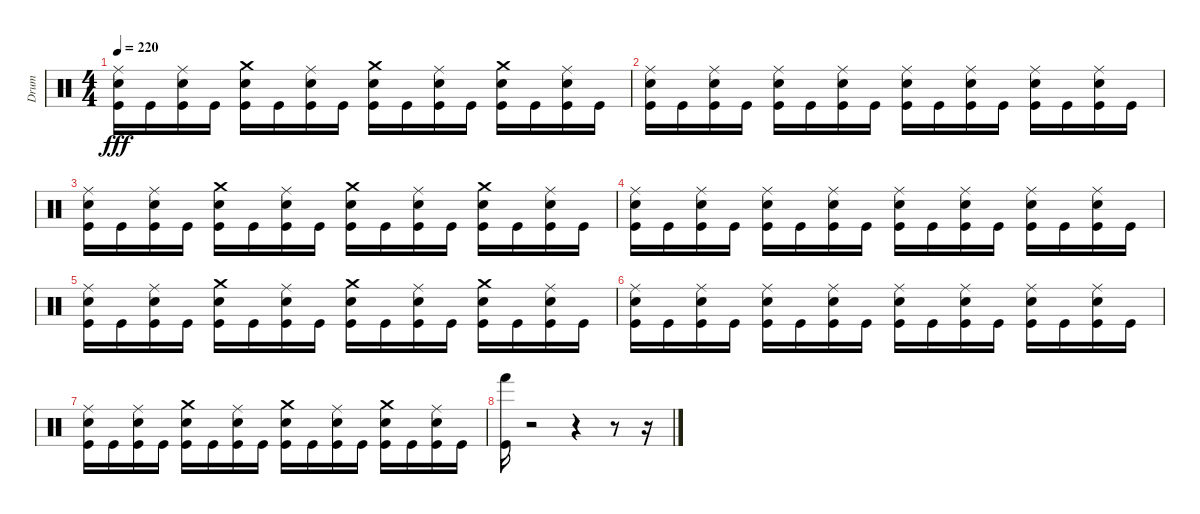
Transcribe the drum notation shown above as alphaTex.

\track ("Drum" "Drum") {instrument percussion}
\staff {score}
\articulation defaults
\ts (4 4)
\tempo 220
\clef neutral
\ks c
("Snare (hit) 2" "Kick (hit)" "Ride (middle)").16{dy fff} "Kick (hit)".16 ("Snare (hit) 2" "Ride (middle)" "Kick (hit)").16 "Kick (hit)".16 ("Snare (hit) 2" "Kick (hit)" "Crash medium (hit)").16 "Kick (hit)".16 ("Ride (middle)" "Kick (hit)" "Snare (hit) 2").16 "Kick (hit)".16 ("Kick (hit)" "Snare (hit) 2" "Crash medium (hit)").16 "Kick (hit)".16 ("Ride (middle)" "Snare (hit) 2" "Kick (hit)").16 "Kick (hit)".16 ("Snare (hit) 2" "Kick (hit)" "Crash medium (hit)").16 "Kick (hit)".16 ("Ride (middle)" "Kick (hit)" "Snare (hit) 2").16 "Kick (hit)".16 |
("Ride (middle)" "Snare (hit) 2" "Kick (hit)").16 "Kick (hit)".16 ("Snare (hit) 2" "Ride (middle)" "Kick (hit)").16 "Kick (hit)".16 ("Snare (hit) 2" "Ride (middle)" "Kick (hit)").16 "Kick (hit)".16 ("Kick (hit)" "Snare (hit) 2" "Ride (middle)").16 "Kick (hit)".16 ("Ride (middle)" "Kick (hit)" "Snare (hit) 2").16 "Kick (hit)".16 ("Snare (hit) 2" "Kick (hit)" "Ride (middle)").16 "Kick (hit)".16 ("Snare (hit) 2" "Kick (hit)" "Ride (middle)").16 "Kick (hit)".16 ("Snare (hit) 2" "Ride (middle)" "Kick (hit)").16 "Kick (hit)".16 |
("Kick (hit)" "Snare (hit) 2" "Ride (middle)").16 "Kick (hit)".16 ("Ride (middle)" "Kick (hit)" "Snare (hit) 2").16 "Kick (hit)".16 ("Snare (hit) 2" "Crash medium (hit)" "Kick (hit)").16 "Kick (hit)".16 ("Kick (hit)" "Snare (hit) 2" "Ride (middle)").16 "Kick (hit)".16 ("Snare (hit) 2" "Kick (hit)" "Crash medium (hit)").16 "Kick (hit)".16 ("Kick (hit)" "Snare (hit) 2" "Ride (middle)").16 "Kick (hit)".16 ("Kick (hit)" "Crash medium (hit)" "Snare (hit) 2").16 "Kick (hit)".16 ("Kick (hit)" "Ride (middle)" "Snare (hit) 2").16 "Kick (hit)".16 |
("Ride (middle)" "Snare (hit) 2" "Kick (hit)").16 "Kick (hit)".16 ("Kick (hit)" "Snare (hit) 2" "Ride (middle)").16 "Kick (hit)".16 ("Ride (middle)" "Snare (hit) 2" "Kick (hit)").16 "Kick (hit)".16 ("Snare (hit) 2" "Kick (hit)" "Ride (middle)").16 "Kick (hit)".16 ("Ride (middle)" "Snare (hit) 2" "Kick (hit)").16 "Kick (hit)".16 ("Snare (hit) 2" "Ride (middle)" "Kick (hit)").16 "Kick (hit)".16 ("Snare (hit) 2" "Kick (hit)" "Ride (middle)").16 "Kick (hit)".16 ("Kick (hit)" "Snare (hit) 2" "Ride (middle)").16 "Kick (hit)".16 |
("Kick (hit)" "Snare (hit) 2" "Ride (middle)").16 "Kick (hit)".16 ("Ride (middle)" "Snare (hit) 2" "Kick (hit)").16 "Kick (hit)".16 ("Snare (hit) 2" "Kick (hit)" "Crash medium (hit)").16 "Kick (hit)".16 ("Kick (hit)" "Ride (middle)" "Snare (hit) 2").16 "Kick (hit)".16 ("Crash medium (hit)" "Kick (hit)" "Snare (hit) 2").16 "Kick (hit)".16 ("Ride (middle)" "Snare (hit) 2" "Kick (hit)").16 "Kick (hit)".16 ("Crash medium (hit)" "Kick (hit)" "Snare (hit) 2").16 "Kick (hit)".16 ("Ride (middle)" "Snare (hit) 2" "Kick (hit)").16 "Kick (hit)".16 |
("Snare (hit) 2" "Kick (hit)" "Ride (middle)").16 "Kick (hit)".16 ("Kick (hit)" "Ride (middle)" "Snare (hit) 2").16 "Kick (hit)".16 ("Ride (middle)" "Snare (hit) 2" "Kick (hit)").16 "Kick (hit)".16 ("Kick (hit)" "Snare (hit) 2" "Ride (middle)").16 "Kick (hit)".16 ("Ride (middle)" "Kick (hit)" "Snare (hit) 2").16 "Kick (hit)".16 ("Snare (hit) 2" "Kick (hit)" "Ride (middle)").16 "Kick (hit)".16 ("Snare (hit) 2" "Ride (middle)" "Kick (hit)").16 "Kick (hit)".16 ("Snare (hit) 2" "Kick (hit)" "Ride (middle)").16 "Kick (hit)".16 |
("Snare (hit) 2" "Ride (middle)" "Kick (hit)").16 "Kick (hit)".16 ("Ride (middle)" "Kick (hit)" "Snare (hit) 2").16 "Kick (hit)".16 ("Snare (hit) 2" "Crash medium (hit)" "Kick (hit)").16 "Kick (hit)".16 ("Ride (middle)" "Kick (hit)" "Snare (hit) 2").16 "Kick (hit)".16 ("Crash medium (hit)" "Snare (hit) 2" "Kick (hit)").16 "Kick (hit)".16 ("Ride (middle)" "Kick (hit)" "Snare (hit) 2").16 "Kick (hit)".16 ("Snare (hit) 2" "Kick (hit)" "Crash medium (hit)").16 "Kick (hit)".16 ("Kick (hit)" "Snare (hit) 2" "Ride (middle)").16 "Kick (hit)".16 |
("Kick (hit)" "Hand (hit)").16 r.2 r.4 r.8 r.16
